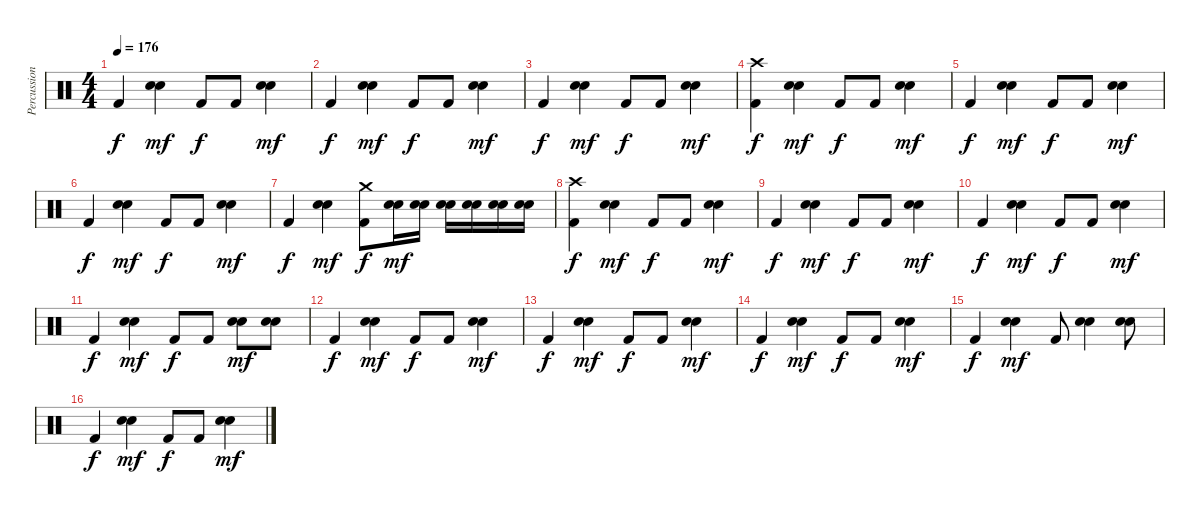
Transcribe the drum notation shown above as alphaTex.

\track ("Percussion" "Percussion") {instrument percussion}
\staff {score}
\articulation defaults
\ts (4 4)
\tempo 176
\clef neutral
\ks c "Kick (hit) 2".4{dy f}
("Electric Snare (hit)" "Snare (hit) 2").4{dy mf} "Kick (hit) 2".8{dy f} "Kick (hit) 2".8 ("Electric Snare (hit)" "Snare (hit) 2").4{dy mf} |
"Kick (hit) 2".4{dy f} ("Electric Snare (hit)" "Snare (hit) 2").4{dy mf} "Kick (hit) 2".8{dy f} "Kick (hit) 2".8 ("Electric Snare (hit)" "Snare (hit) 2").4{dy mf} |
"Kick (hit) 2".4{dy f} ("Electric Snare (hit)" "Snare (hit) 2").4{dy mf} "Kick (hit) 2".8{dy f} "Kick (hit) 2".8 ("Electric Snare (hit)" "Snare (hit) 2").4{dy mf} |
("Kick (hit) 2" "Crash high (hit)").4{dy f} ("Electric Snare (hit)" "Snare (hit) 2").4{dy mf} "Kick (hit) 2".8{dy f} "Kick (hit) 2".8 ("Electric Snare (hit)" "Snare (hit) 2").4{dy mf} |
"Kick (hit) 2".4{dy f} ("Electric Snare (hit)" "Snare (hit) 2").4{dy mf} "Kick (hit) 2".8{dy f} "Kick (hit) 2".8 ("Electric Snare (hit)" "Snare (hit) 2").4{dy mf} |
"Kick (hit) 2".4{dy f} ("Electric Snare (hit)" "Snare (hit) 2").4{dy mf} "Kick (hit) 2".8{dy f} "Kick (hit) 2".8 ("Electric Snare (hit)" "Snare (hit) 2").4{dy mf} |
"Kick (hit) 2".4{dy f} ("Electric Snare (hit)" "Snare (hit) 2").4{dy mf} ("Kick (hit) 2" "Crash medium (hit)").8{dy f} ("Electric Snare (hit)" "Snare (hit) 2").16{dy mf} ("Electric Snare (hit)" "Snare (hit) 2").16 ("Electric Snare (hit)" "Snare (hit) 2").16 ("Electric Snare (hit)" "Snare (hit) 2").16 ("Electric Snare (hit)" "Snare (hit) 2").16 ("Electric Snare (hit)" "Snare (hit) 2").16 |
("Kick (hit) 2" "Crash high (hit)").4{dy f} ("Electric Snare (hit)" "Snare (hit) 2").4{dy mf} "Kick (hit) 2".8{dy f} "Kick (hit) 2".8 ("Electric Snare (hit)" "Snare (hit) 2").4{dy mf} |
"Kick (hit) 2".4{dy f} ("Electric Snare (hit)" "Snare (hit) 2").4{dy mf} "Kick (hit) 2".8{dy f} "Kick (hit) 2".8 ("Electric Snare (hit)" "Snare (hit) 2").4{dy mf} |
"Kick (hit) 2".4{dy f} ("Electric Snare (hit)" "Snare (hit) 2").4{dy mf} "Kick (hit) 2".8{dy f} "Kick (hit) 2".8 ("Electric Snare (hit)" "Snare (hit) 2").4{dy mf} |
"Kick (hit) 2".4{dy f} ("Electric Snare (hit)" "Snare (hit) 2").4{dy mf} "Kick (hit) 2".8{dy f} "Kick (hit) 2".8 ("Electric Snare (hit)" "Snare (hit) 2").8{dy mf} ("Electric Snare (hit)" "Snare (hit) 2").8 |
"Kick (hit) 2".4{dy f} ("Electric Snare (hit)" "Snare (hit) 2").4{dy mf} "Kick (hit) 2".8{dy f} "Kick (hit) 2".8 ("Electric Snare (hit)" "Snare (hit) 2").4{dy mf} |
"Kick (hit) 2".4{dy f} ("Electric Snare (hit)" "Snare (hit) 2").4{dy mf} "Kick (hit) 2".8{dy f} "Kick (hit) 2".8 ("Electric Snare (hit)" "Snare (hit) 2").4{dy mf} |
"Kick (hit) 2".4{dy f} ("Electric Snare (hit)" "Snare (hit) 2").4{dy mf} "Kick (hit) 2".8{dy f} "Kick (hit) 2".8 ("Electric Snare (hit)" "Snare (hit) 2").4{dy mf} |
"Kick (hit) 2".4{dy f} ("Electric Snare (hit)" "Snare (hit) 2").4{dy mf} "Kick (hit) 2".8 ("Electric Snare (hit)" "Snare (hit) 2").4 ("Electric Snare (hit)" "Snare (hit) 2").8 |
"Kick (hit) 2".4{dy f} ("Electric Snare (hit)" "Snare (hit) 2").4{dy mf} "Kick (hit) 2".8{dy f} "Kick (hit) 2".8 ("Electric Snare (hit)" "Snare (hit) 2").4{dy mf}
